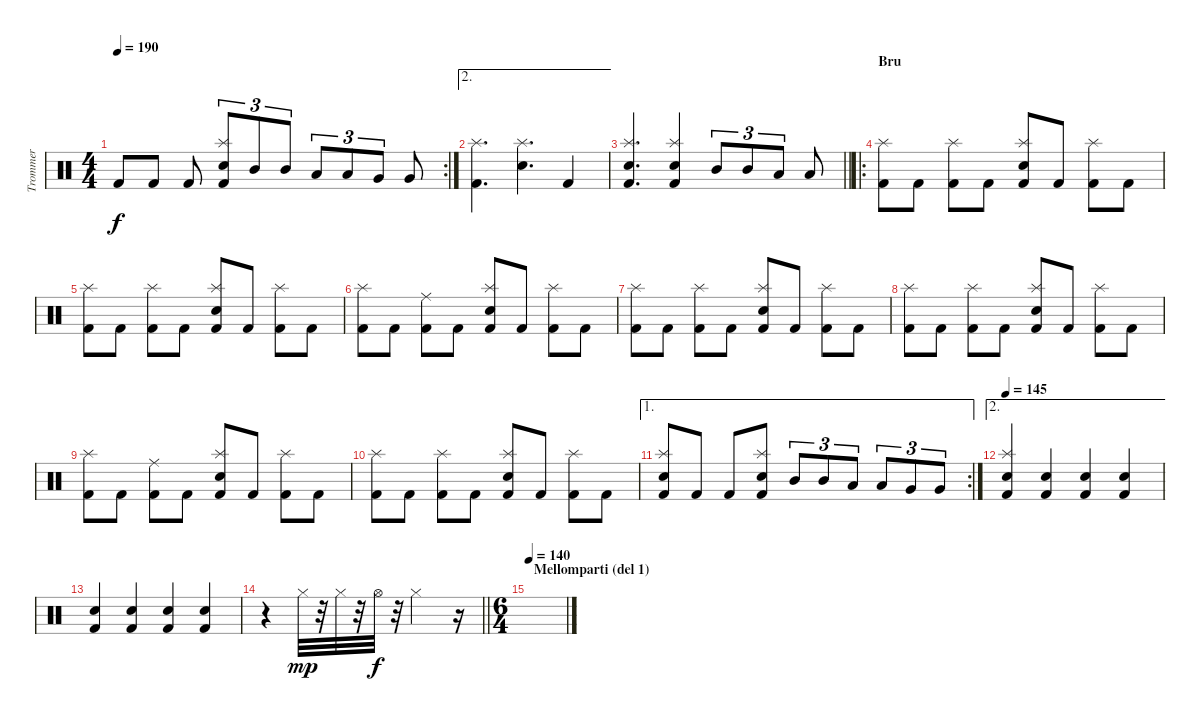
\track ("Trommer" "Trommer") {instrument percussion}
\staff {score}
\articulation defaults
\rc 2
\ts (4 4)
\tempo 190
\clef neutral
\ks c "Kick (hit) 2".8{dy f} "Kick (hit) 2".8 "Kick (hit) 2".8
("Splash (hit)" "Snare (hit) 2" "Kick (hit) 2").8{tu (3 2)} "Mid Tom (hit)".8{tu (3 2)} "Mid Tom (hit)".8{tu (3 2)} "Low Tom (hit)".8{tu (3 2)} "Low Tom (hit)".8{tu (3 2)} "Very Low Tom (hit)".8{tu (3 2)} "Very Low Tom (hit)".8 |
\ae 2
("Splash (hit)" "Kick (hit) 2").4{d} ("Splash (hit)" "Snare (hit) 2").4{d} "Kick (hit) 2".4 |
\barLineRight lightlight
("Splash (hit)" "Snare (hit) 2" "Kick (hit) 2").4{d} ("Splash (hit)" "Snare (hit) 2" "Kick (hit) 2").4 "Mid Tom (hit)".8{tu (3 2)} "Mid Tom (hit)".8{tu (3 2)} "Low Tom (hit)".8{tu (3 2)} "Low Tom (hit)".8 |
\ro
\section ("" "Bru")
("Splash (hit)" "Kick (hit) 2").8 "Kick (hit) 2".8 ("Splash (hit)" "Kick (hit) 2").8 "Kick (hit) 2".8 ("Splash (hit)" "Snare (hit) 2" "Kick (hit) 2").8 "Kick (hit) 2".8 ("Splash (hit)" "Kick (hit) 2").8 "Kick (hit) 2".8 |
("Splash (hit)" "Kick (hit) 2").8 "Kick (hit) 2".8 ("Splash (hit)" "Kick (hit) 2").8 "Kick (hit) 2".8 ("Splash (hit)" "Snare (hit) 2" "Kick (hit) 2").8 "Kick (hit) 2".8 ("Splash (hit)" "Kick (hit) 2").8 "Kick (hit) 2".8 |
("Splash (hit)" "Kick (hit) 2").8 "Kick (hit) 2".8 ("Ride (middle)" "Kick (hit) 2").8 "Kick (hit) 2".8 ("Splash (hit)" "Snare (hit) 2" "Kick (hit) 2").8 "Kick (hit) 2".8 ("Splash (hit)" "Kick (hit) 2").8 "Kick (hit) 2".8 |
("Splash (hit)" "Kick (hit) 2").8 "Kick (hit) 2".8 ("Splash (hit)" "Kick (hit) 2").8 "Kick (hit) 2".8 ("Splash (hit)" "Snare (hit) 2" "Kick (hit) 2").8 "Kick (hit) 2".8 ("Splash (hit)" "Kick (hit) 2").8 "Kick (hit) 2".8 |
("Splash (hit)" "Kick (hit) 2").8 "Kick (hit) 2".8 ("Splash (hit)" "Kick (hit) 2").8 "Kick (hit) 2".8 ("Splash (hit)" "Snare (hit) 2" "Kick (hit) 2").8 "Kick (hit) 2".8 ("Splash (hit)" "Kick (hit) 2").8 "Kick (hit) 2".8 |
("Splash (hit)" "Kick (hit) 2").8 "Kick (hit) 2".8 ("Ride (middle)" "Kick (hit) 2").8 "Kick (hit) 2".8 ("Splash (hit)" "Snare (hit) 2" "Kick (hit) 2").8 "Kick (hit) 2".8 ("Splash (hit)" "Kick (hit) 2").8 "Kick (hit) 2".8 |
("Splash (hit)" "Kick (hit) 2").8 "Kick (hit) 2".8 ("Splash (hit)" "Kick (hit) 2").8 "Kick (hit) 2".8 ("Splash (hit)" "Snare (hit) 2" "Kick (hit) 2").8 "Kick (hit) 2".8 ("Splash (hit)" "Kick (hit) 2").8 "Kick (hit) 2".8 |
\ae 1
\rc 2
("Splash (hit)" "Snare (hit) 2" "Kick (hit) 2").8 "Kick (hit) 2".8 "Kick (hit) 2".8 ("Splash (hit)" "Snare (hit) 2" "Kick (hit) 2").8 "Mid Tom (hit)".8{tu (3 2)} "Mid Tom (hit)".8{tu (3 2)} "Low Tom (hit)".8{tu (3 2)} "Low Tom (hit)".8{tu (3 2)} "Very Low Tom (hit)".8{tu (3 2)} "Very Low Tom (hit)".8{tu (3 2)} |
\ae 2
\tempo 145
("Splash (hit)" "Snare (hit) 2" "Kick (hit) 2").4 ("Snare (hit) 2" "Kick (hit) 2").4 ("Snare (hit) 2" "Kick (hit) 2").4 ("Snare (hit) 2" "Kick (hit) 2").4 |
("Snare (hit) 2" "Kick (hit) 2").4 ("Snare (hit) 2" "Kick (hit) 2").4 ("Snare (hit) 2" "Kick (hit) 2").4 ("Snare (hit) 2" "Kick (hit) 2").4 |
\barLineRight lightlight
r.4 "Hi-Hat (closed)".32{dy mp} r.32 "Hi-Hat (closed)".32 r.32 "Hi-Hat (open)".32{dy f} r.32 "Hi-Hat (closed)".2 r.16 |
\ts (6 4)
\section ("" " Mellomparti (del 1)")
\tempo 140
